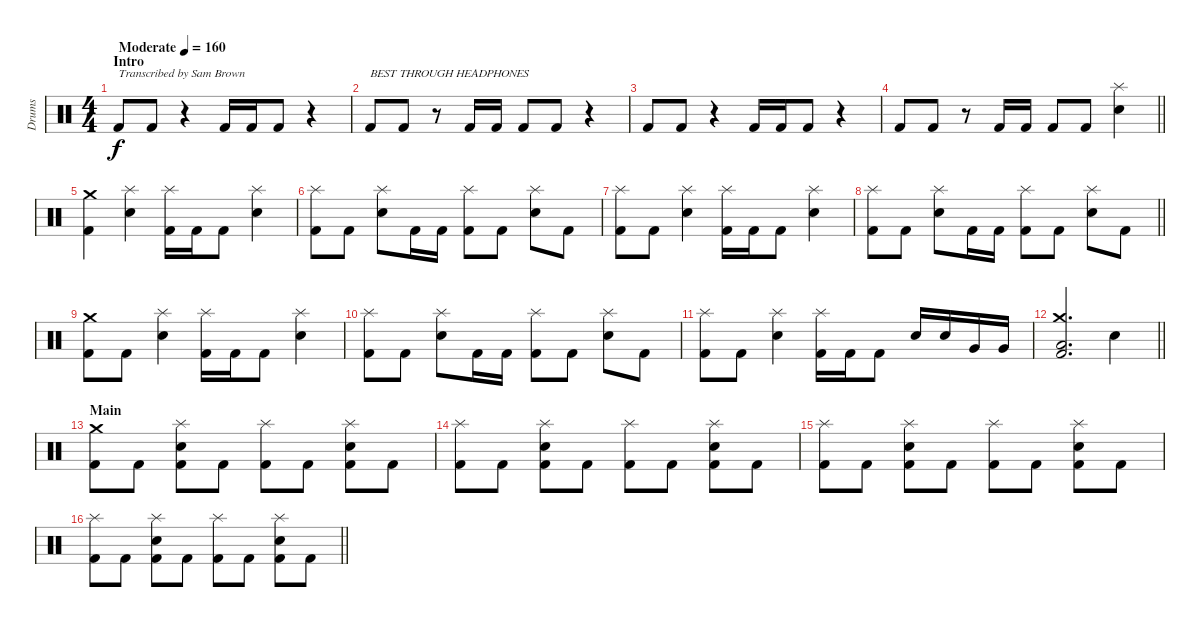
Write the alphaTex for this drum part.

\track ("Drums" "Drums") {instrument percussion}
\staff {score}
\articulation defaults
\ts (4 4)
\section ("" "Intro")
\tempo (160 "Moderate")
\clef neutral
\ks c "Kick (hit) 2".8{txt "Transcribed by Sam Brown" dy f} "Kick (hit) 2".8
r.4 "Kick (hit) 2".16 "Kick (hit) 2".16 "Kick (hit) 2".8 r.4 |
"Kick (hit) 2".8{txt "BEST THROUGH HEADPHONES"} "Kick (hit) 2".8 r.8 "Kick (hit) 2".16 "Kick (hit) 2".16 "Kick (hit) 2".8 "Kick (hit) 2".8 r.4 |
"Kick (hit) 2".8 "Kick (hit) 2".8 r.4 "Kick (hit) 2".16 "Kick (hit) 2".16 "Kick (hit) 2".8 r.4 |
\barLineRight lightlight "Kick (hit) 2".8 "Kick (hit) 2".8
r.8 "Kick (hit) 2".16 "Kick (hit) 2".16 "Kick (hit) 2".8 "Kick (hit) 2".8 ("Snare (hit) 2" "Splash (hit)").4 |
\section ("" "")
("Kick (hit) 2" "Crash medium (hit)").4 ("Snare (hit) 2" "Splash (hit)").4 ("Kick (hit) 2" "Splash (hit)").16 "Kick (hit) 2".16 "Kick (hit) 2".8 ("Snare (hit) 2" "Splash (hit)").4 |
("Kick (hit) 2" "Splash (hit)").8 "Kick (hit) 2".8 ("Snare (hit) 2" "Splash (hit)").8 "Kick (hit) 2".16 "Kick (hit) 2".16 ("Kick (hit) 2" "Splash (hit)").8 "Kick (hit) 2".8 ("Snare (hit) 2" "Splash (hit)").8 "Kick (hit) 2".8 |
("Kick (hit) 2" "Splash (hit)").8 "Kick (hit) 2".8 ("Snare (hit) 2" "Splash (hit)").4 ("Kick (hit) 2" "Splash (hit)").16 "Kick (hit) 2".16 "Kick (hit) 2".8 ("Snare (hit) 2" "Splash (hit)").4 |
\barLineRight lightlight
("Kick (hit) 2" "Splash (hit)").8 "Kick (hit) 2".8 ("Snare (hit) 2" "Splash (hit)").8 "Kick (hit) 2".16 "Kick (hit) 2".16 ("Kick (hit) 2" "Splash (hit)").8 "Kick (hit) 2".8 ("Snare (hit) 2" "Splash (hit)").8 "Kick (hit) 2".8 |
\section ("" "")
("Kick (hit) 2" "Crash medium (hit)").8 "Kick (hit) 2".8 ("Snare (hit) 2" "Splash (hit)").4 ("Kick (hit) 2" "Splash (hit)").16 "Kick (hit) 2".16 "Kick (hit) 2".8 ("Snare (hit) 2" "Splash (hit)").4 |
("Kick (hit) 2" "Splash (hit)").8 "Kick (hit) 2".8 ("Snare (hit) 2" "Splash (hit)").8 "Kick (hit) 2".16 "Kick (hit) 2".16 ("Kick (hit) 2" "Splash (hit)").8 "Kick (hit) 2".8 ("Snare (hit) 2" "Splash (hit)").8 "Kick (hit) 2".8 |
("Kick (hit) 2" "Splash (hit)").8 "Kick (hit) 2".8 ("Snare (hit) 2" "Splash (hit)").4 ("Kick (hit) 2" "Splash (hit)").16 "Kick (hit) 2".16 "Kick (hit) 2".8 "Snare (hit) 2".16 "Snare (hit) 2".16 "Very Low Tom (hit)".16 "Very Low Tom (hit)".16 |
\barLineRight lightlight
("Kick (hit) 2" "Low Floor Tom (hit)" "Crash medium (hit)").2{d} "Snare (hit) 2".4 |
\section ("" "Main")
("Kick (hit) 2" "Crash medium (hit)").8 "Kick (hit) 2".8 ("Kick (hit) 2" "Snare (hit) 2" "Splash (hit)").8 "Kick (hit) 2".8 ("Kick (hit) 2" "Splash (hit)").8 "Kick (hit) 2".8 ("Kick (hit) 2" "Snare (hit) 2" "Splash (hit)").8 "Kick (hit) 2".8 |
("Kick (hit) 2" "Splash (hit)").8 "Kick (hit) 2".8 ("Kick (hit) 2" "Snare (hit) 2" "Splash (hit)").8 "Kick (hit) 2".8 ("Kick (hit) 2" "Splash (hit)").8 "Kick (hit) 2".8 ("Kick (hit) 2" "Snare (hit) 2" "Splash (hit)").8 "Kick (hit) 2".8 |
("Kick (hit) 2" "Splash (hit)").8 "Kick (hit) 2".8 ("Kick (hit) 2" "Snare (hit) 2" "Splash (hit)").8 "Kick (hit) 2".8 ("Kick (hit) 2" "Splash (hit)").8 "Kick (hit) 2".8 ("Kick (hit) 2" "Snare (hit) 2" "Splash (hit)").8 "Kick (hit) 2".8 |
\barLineRight lightlight
("Kick (hit) 2" "Splash (hit)").8 "Kick (hit) 2".8 ("Kick (hit) 2" "Snare (hit) 2" "Splash (hit)").8 "Kick (hit) 2".8 ("Kick (hit) 2" "Splash (hit)").8 "Kick (hit) 2".8 ("Kick (hit) 2" "Snare (hit) 2" "Splash (hit)").8 "Kick (hit) 2".8
